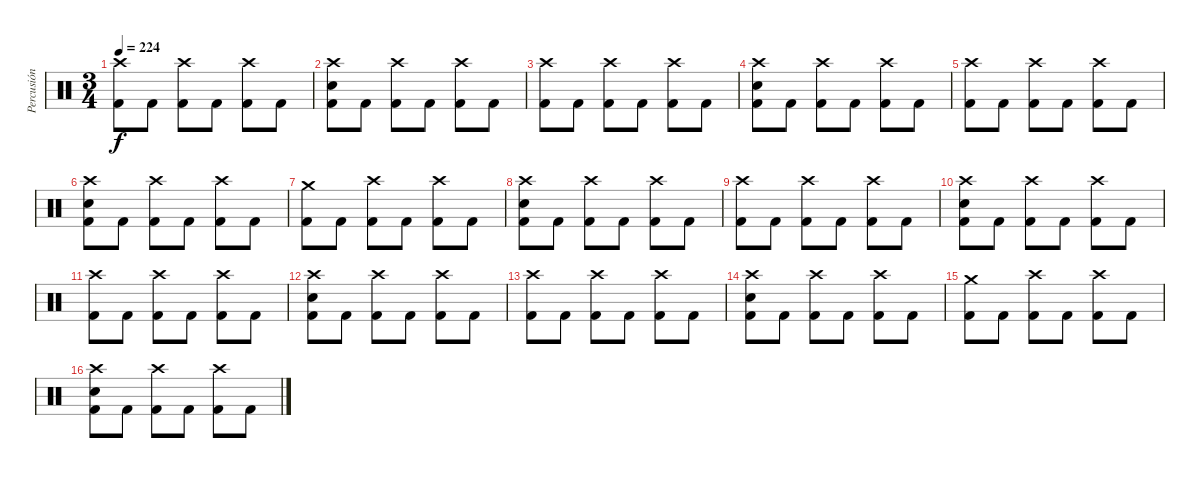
\track ("Percusión" "Percusión") {instrument percussion}
\staff {score}
\articulation defaults
\ts (3 4)
\tempo 224
\clef neutral
\ks c
("Crash high (hit)" "Kick (hit) 2").8{dy f} "Kick (hit) 2".8 ("Crash high (hit)" "Kick (hit) 2").8 "Kick (hit) 2".8 ("Crash high (hit)" "Kick (hit) 2").8 "Kick (hit) 2".8 |
("Crash high (hit)" "Electric Snare (hit)" "Kick (hit) 2").8 "Kick (hit) 2".8 ("Crash high (hit)" "Kick (hit) 2").8 "Kick (hit) 2".8 ("Crash high (hit)" "Kick (hit) 2").8 "Kick (hit) 2".8 |
("Crash high (hit)" "Kick (hit) 2").8 "Kick (hit) 2".8 ("Crash high (hit)" "Kick (hit) 2").8 "Kick (hit) 2".8 ("Crash high (hit)" "Kick (hit) 2").8 "Kick (hit) 2".8 |
("Crash high (hit)" "Electric Snare (hit)" "Kick (hit) 2").8 "Kick (hit) 2".8 ("Crash high (hit)" "Kick (hit) 2").8 "Kick (hit) 2".8 ("Crash high (hit)" "Kick (hit) 2").8 "Kick (hit) 2".8 |
("Crash high (hit)" "Kick (hit) 2").8 "Kick (hit) 2".8 ("Crash high (hit)" "Kick (hit) 2").8 "Kick (hit) 2".8 ("Crash high (hit)" "Kick (hit) 2").8 "Kick (hit) 2".8 |
("Crash high (hit)" "Electric Snare (hit)" "Kick (hit) 2").8 "Kick (hit) 2".8 ("Crash high (hit)" "Kick (hit) 2").8 "Kick (hit) 2".8 ("Crash high (hit)" "Kick (hit) 2").8 "Kick (hit) 2".8 |
("Crash medium (hit)" "Kick (hit) 2").8 "Kick (hit) 2".8 ("Crash high (hit)" "Kick (hit) 2").8 "Kick (hit) 2".8 ("Crash high (hit)" "Kick (hit) 2").8 "Kick (hit) 2".8 |
("Crash high (hit)" "Electric Snare (hit)" "Kick (hit) 2").8 "Kick (hit) 2".8 ("Crash high (hit)" "Kick (hit) 2").8 "Kick (hit) 2".8 ("Crash high (hit)" "Kick (hit) 2").8 "Kick (hit) 2".8 |
("Crash high (hit)" "Kick (hit) 2").8 "Kick (hit) 2".8 ("Crash high (hit)" "Kick (hit) 2").8 "Kick (hit) 2".8 ("Crash high (hit)" "Kick (hit) 2").8 "Kick (hit) 2".8 |
("Crash high (hit)" "Electric Snare (hit)" "Kick (hit) 2").8 "Kick (hit) 2".8 ("Crash high (hit)" "Kick (hit) 2").8 "Kick (hit) 2".8 ("Crash high (hit)" "Kick (hit) 2").8 "Kick (hit) 2".8 |
("Crash high (hit)" "Kick (hit) 2").8 "Kick (hit) 2".8 ("Crash high (hit)" "Kick (hit) 2").8 "Kick (hit) 2".8 ("Crash high (hit)" "Kick (hit) 2").8 "Kick (hit) 2".8 |
("Crash high (hit)" "Electric Snare (hit)" "Kick (hit) 2").8 "Kick (hit) 2".8 ("Crash high (hit)" "Kick (hit) 2").8 "Kick (hit) 2".8 ("Crash high (hit)" "Kick (hit) 2").8 "Kick (hit) 2".8 |
("Crash high (hit)" "Kick (hit) 2").8 "Kick (hit) 2".8 ("Crash high (hit)" "Kick (hit) 2").8 "Kick (hit) 2".8 ("Crash high (hit)" "Kick (hit) 2").8 "Kick (hit) 2".8 |
("Crash high (hit)" "Electric Snare (hit)" "Kick (hit) 2").8 "Kick (hit) 2".8 ("Crash high (hit)" "Kick (hit) 2").8 "Kick (hit) 2".8 ("Crash high (hit)" "Kick (hit) 2").8 "Kick (hit) 2".8 |
("Crash medium (hit)" "Kick (hit) 2").8 "Kick (hit) 2".8 ("Crash high (hit)" "Kick (hit) 2").8 "Kick (hit) 2".8 ("Crash high (hit)" "Kick (hit) 2").8 "Kick (hit) 2".8 |
("Crash high (hit)" "Electric Snare (hit)" "Kick (hit) 2").8 "Kick (hit) 2".8 ("Crash high (hit)" "Kick (hit) 2").8 "Kick (hit) 2".8 ("Crash high (hit)" "Kick (hit) 2").8 "Kick (hit) 2".8
